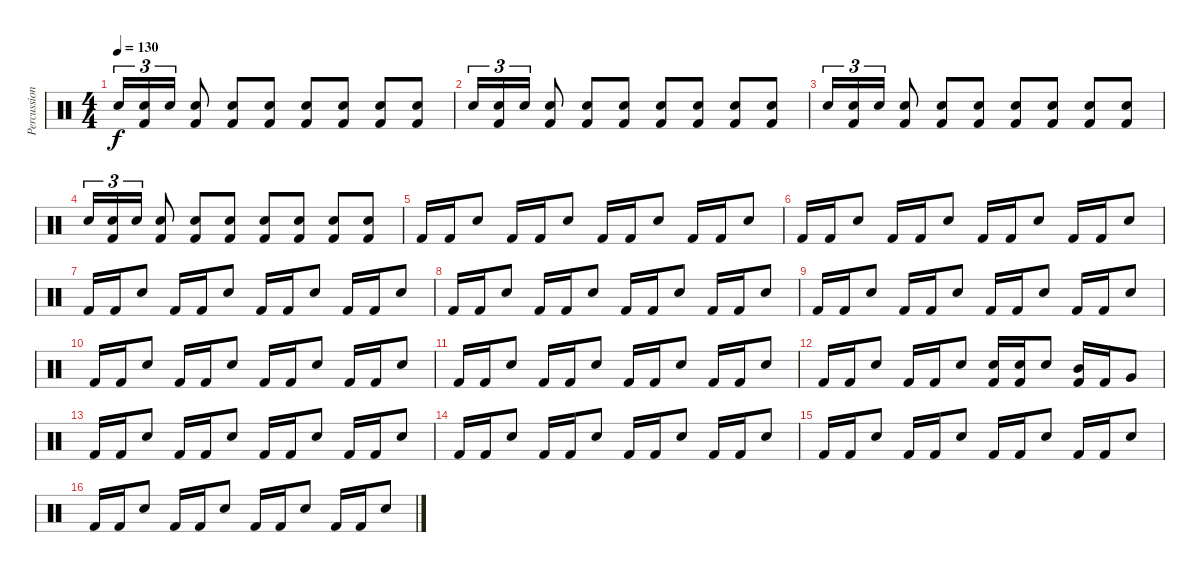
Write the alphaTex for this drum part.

\track ("Percussion" "Percussion") {instrument percussion}
\staff {score}
\articulation defaults
\ts (4 4)
\tempo 130
\clef neutral
\ks c "Snare (hit) 2".16{tu (3 2) dy f}
("Snare (hit) 2" "Kick (hit) 2").16{tu (3 2)} "Snare (hit) 2".16{tu (3 2)} ("Snare (hit) 2" "Kick (hit) 2").8 ("Snare (hit) 2" "Kick (hit) 2").8 ("Snare (hit) 2" "Kick (hit) 2").8 ("Snare (hit) 2" "Kick (hit) 2").8 ("Snare (hit) 2" "Kick (hit) 2").8 ("Snare (hit) 2" "Kick (hit) 2").8 ("Snare (hit) 2" "Kick (hit) 2").8 |
"Snare (hit) 2".16{tu (3 2)} ("Snare (hit) 2" "Kick (hit) 2").16{tu (3 2)} "Snare (hit) 2".16{tu (3 2)} ("Snare (hit) 2" "Kick (hit) 2").8 ("Snare (hit) 2" "Kick (hit) 2").8 ("Snare (hit) 2" "Kick (hit) 2").8 ("Snare (hit) 2" "Kick (hit) 2").8 ("Snare (hit) 2" "Kick (hit) 2").8 ("Snare (hit) 2" "Kick (hit) 2").8 ("Snare (hit) 2" "Kick (hit) 2").8 |
"Snare (hit) 2".16{tu (3 2)} ("Snare (hit) 2" "Kick (hit) 2").16{tu (3 2)} "Snare (hit) 2".16{tu (3 2)} ("Snare (hit) 2" "Kick (hit) 2").8 ("Snare (hit) 2" "Kick (hit) 2").8 ("Snare (hit) 2" "Kick (hit) 2").8 ("Snare (hit) 2" "Kick (hit) 2").8 ("Snare (hit) 2" "Kick (hit) 2").8 ("Snare (hit) 2" "Kick (hit) 2").8 ("Snare (hit) 2" "Kick (hit) 2").8 |
"Snare (hit) 2".16{tu (3 2)} ("Snare (hit) 2" "Kick (hit) 2").16{tu (3 2)} "Snare (hit) 2".16{tu (3 2)} ("Snare (hit) 2" "Kick (hit) 2").8 ("Snare (hit) 2" "Kick (hit) 2").8 ("Snare (hit) 2" "Kick (hit) 2").8 ("Snare (hit) 2" "Kick (hit) 2").8 ("Snare (hit) 2" "Kick (hit) 2").8 ("Snare (hit) 2" "Kick (hit) 2").8 ("Snare (hit) 2" "Kick (hit) 2").8 |
"Kick (hit) 2".16 "Kick (hit) 2".16 "Snare (hit) 2".8 "Kick (hit) 2".16 "Kick (hit) 2".16 "Snare (hit) 2".8 "Kick (hit) 2".16 "Kick (hit) 2".16 "Snare (hit) 2".8 "Kick (hit) 2".16 "Kick (hit) 2".16 "Snare (hit) 2".8 |
"Kick (hit) 2".16 "Kick (hit) 2".16 "Snare (hit) 2".8 "Kick (hit) 2".16 "Kick (hit) 2".16 "Snare (hit) 2".8 "Kick (hit) 2".16 "Kick (hit) 2".16 "Snare (hit) 2".8 "Kick (hit) 2".16 "Kick (hit) 2".16 "Snare (hit) 2".8 |
"Kick (hit) 2".16 "Kick (hit) 2".16 "Snare (hit) 2".8 "Kick (hit) 2".16 "Kick (hit) 2".16 "Snare (hit) 2".8 "Kick (hit) 2".16 "Kick (hit) 2".16 "Snare (hit) 2".8 "Kick (hit) 2".16 "Kick (hit) 2".16 "Snare (hit) 2".8 |
"Kick (hit) 2".16 "Kick (hit) 2".16 "Snare (hit) 2".8 "Kick (hit) 2".16 "Kick (hit) 2".16 "Snare (hit) 2".8 "Kick (hit) 2".16 "Kick (hit) 2".16 "Snare (hit) 2".8 "Kick (hit) 2".16 "Kick (hit) 2".16 "Snare (hit) 2".8 |
"Kick (hit) 2".16 "Kick (hit) 2".16 "Snare (hit) 2".8 "Kick (hit) 2".16 "Kick (hit) 2".16 "Snare (hit) 2".8 "Kick (hit) 2".16 "Kick (hit) 2".16 "Snare (hit) 2".8 "Kick (hit) 2".16 "Kick (hit) 2".16 "Snare (hit) 2".8 |
"Kick (hit) 2".16 "Kick (hit) 2".16 "Snare (hit) 2".8 "Kick (hit) 2".16 "Kick (hit) 2".16 "Snare (hit) 2".8 "Kick (hit) 2".16 "Kick (hit) 2".16 "Snare (hit) 2".8 "Kick (hit) 2".16 "Kick (hit) 2".16 "Snare (hit) 2".8 |
"Kick (hit) 2".16 "Kick (hit) 2".16 "Snare (hit) 2".8 "Kick (hit) 2".16 "Kick (hit) 2".16 "Snare (hit) 2".8 "Kick (hit) 2".16 "Kick (hit) 2".16 "Snare (hit) 2".8 "Kick (hit) 2".16 "Kick (hit) 2".16 "Snare (hit) 2".8 |
"Kick (hit) 2".16 "Kick (hit) 2".16 "Snare (hit) 2".8 "Kick (hit) 2".16 "Kick (hit) 2".16 "Snare (hit) 2".8 ("Snare (hit) 2" "Kick (hit) 2").16 ("Snare (hit) 2" "Kick (hit) 2").16 "Snare (hit) 2".8 ("Mid Tom (hit)" "Kick (hit) 2").16 "Kick (hit) 2".16 "Very Low Tom (hit)".8 |
"Kick (hit) 2".16 "Kick (hit) 2".16 "Snare (hit) 2".8 "Kick (hit) 2".16 "Kick (hit) 2".16 "Snare (hit) 2".8 "Kick (hit) 2".16 "Kick (hit) 2".16 "Snare (hit) 2".8 "Kick (hit) 2".16 "Kick (hit) 2".16 "Snare (hit) 2".8 |
"Kick (hit) 2".16 "Kick (hit) 2".16 "Snare (hit) 2".8 "Kick (hit) 2".16 "Kick (hit) 2".16 "Snare (hit) 2".8 "Kick (hit) 2".16 "Kick (hit) 2".16 "Snare (hit) 2".8 "Kick (hit) 2".16 "Kick (hit) 2".16 "Snare (hit) 2".8 |
"Kick (hit) 2".16 "Kick (hit) 2".16 "Snare (hit) 2".8 "Kick (hit) 2".16 "Kick (hit) 2".16 "Snare (hit) 2".8 "Kick (hit) 2".16 "Kick (hit) 2".16 "Snare (hit) 2".8 "Kick (hit) 2".16 "Kick (hit) 2".16 "Snare (hit) 2".8 |
"Kick (hit) 2".16 "Kick (hit) 2".16 "Snare (hit) 2".8 "Kick (hit) 2".16 "Kick (hit) 2".16 "Snare (hit) 2".8 "Kick (hit) 2".16 "Kick (hit) 2".16 "Snare (hit) 2".8 "Kick (hit) 2".16 "Kick (hit) 2".16 "Snare (hit) 2".8
